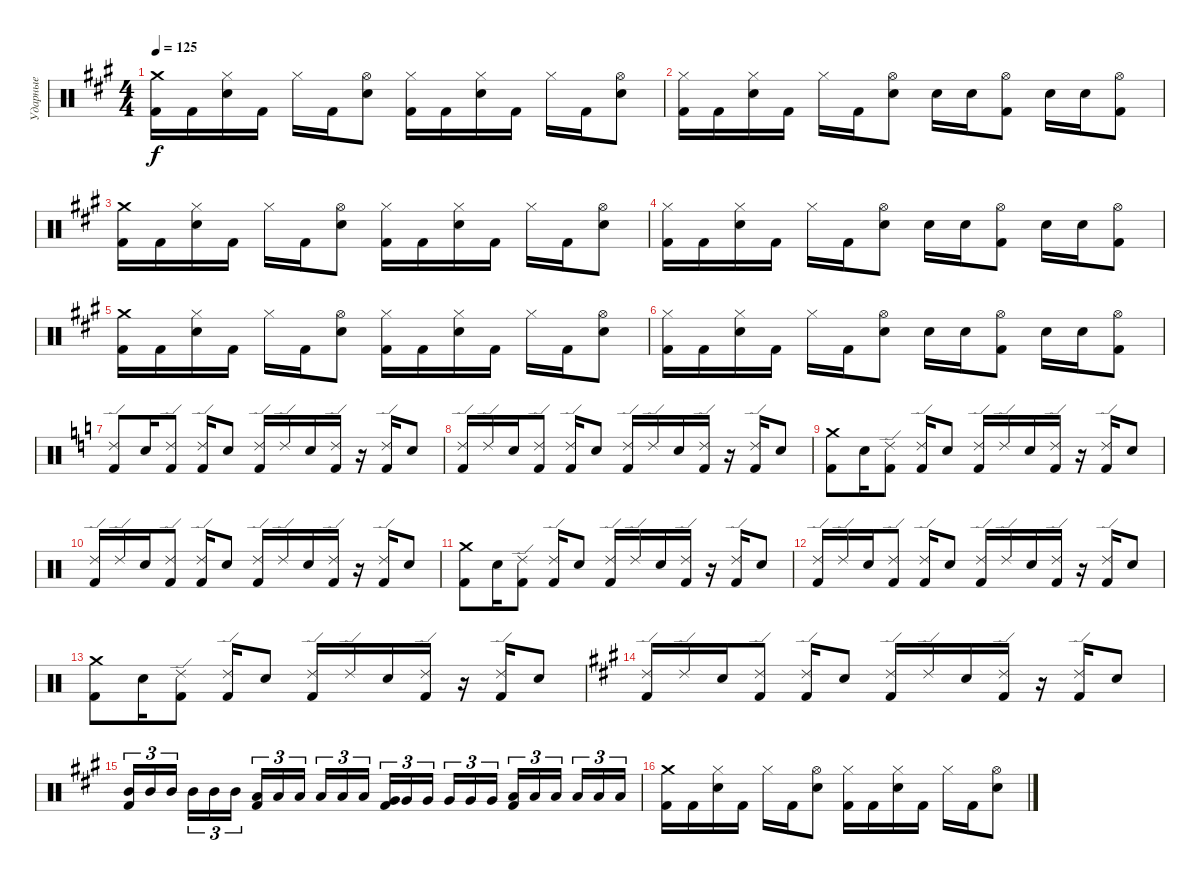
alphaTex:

\track ("Ударные" "Ударные") {instrument percussion}
\staff {score}
\articulation defaults
\ts (4 4)
\tempo 125
\clef neutral
\ks a
("Crash medium (hit)" "Kick (hit) 2").16{dy f} "Kick (hit) 2".16 ("Hi-Hat (closed)" "Snare (hit) 2").16 "Kick (hit) 2".16 "Hi-Hat (closed)".16 "Kick (hit) 2".16 ("Hi-Hat (open)" "Snare (hit) 2").8 ("Hi-Hat (closed)" "Kick (hit) 2").16 "Kick (hit) 2".16 ("Hi-Hat (closed)" "Snare (hit) 2").16 "Kick (hit) 2".16 "Hi-Hat (closed)".16 "Kick (hit) 2".16 ("Hi-Hat (open)" "Snare (hit) 2").8 |
("Hi-Hat (closed)" "Kick (hit) 2").16 "Kick (hit) 2".16 ("Hi-Hat (closed)" "Snare (hit) 2").16 "Kick (hit) 2".16 "Hi-Hat (closed)".16 "Kick (hit) 2".16 ("Hi-Hat (open)" "Snare (hit) 2").8 "Snare (hit) 2".16 "Snare (hit) 2".16 ("Hi-Hat (open)" "Kick (hit) 2").8 "Snare (hit) 2".16 "Snare (hit) 2".16 ("Hi-Hat (open)" "Kick (hit) 2").8 |
("Crash medium (hit)" "Kick (hit) 2").16 "Kick (hit) 2".16 ("Hi-Hat (closed)" "Snare (hit) 2").16 "Kick (hit) 2".16 "Hi-Hat (closed)".16 "Kick (hit) 2".16 ("Hi-Hat (open)" "Snare (hit) 2").8 ("Hi-Hat (closed)" "Kick (hit) 2").16 "Kick (hit) 2".16 ("Hi-Hat (closed)" "Snare (hit) 2").16 "Kick (hit) 2".16 "Hi-Hat (closed)".16 "Kick (hit) 2".16 ("Hi-Hat (open)" "Snare (hit) 2").8 |
("Hi-Hat (closed)" "Kick (hit) 2").16 "Kick (hit) 2".16 ("Hi-Hat (closed)" "Snare (hit) 2").16 "Kick (hit) 2".16 "Hi-Hat (closed)".16 "Kick (hit) 2".16 ("Hi-Hat (open)" "Snare (hit) 2").8 "Snare (hit) 2".16 "Snare (hit) 2".16 ("Hi-Hat (open)" "Kick (hit) 2").8 "Snare (hit) 2".16 "Snare (hit) 2".16 ("Hi-Hat (open)" "Kick (hit) 2").8 |
("Crash medium (hit)" "Kick (hit) 2").16 "Kick (hit) 2".16 ("Hi-Hat (closed)" "Snare (hit) 2").16 "Kick (hit) 2".16 "Hi-Hat (closed)".16 "Kick (hit) 2".16 ("Hi-Hat (open)" "Snare (hit) 2").8 ("Hi-Hat (closed)" "Kick (hit) 2").16 "Kick (hit) 2".16 ("Hi-Hat (closed)" "Snare (hit) 2").16 "Kick (hit) 2".16 "Hi-Hat (closed)".16 "Kick (hit) 2".16 ("Hi-Hat (open)" "Snare (hit) 2").8 |
("Hi-Hat (closed)" "Kick (hit) 2").16 "Kick (hit) 2".16 ("Hi-Hat (closed)" "Snare (hit) 2").16 "Kick (hit) 2".16 "Hi-Hat (closed)".16 "Kick (hit) 2".16 ("Hi-Hat (open)" "Snare (hit) 2").8 "Snare (hit) 2".16 "Snare (hit) 2".16 ("Hi-Hat (open)" "Kick (hit) 2").8 "Snare (hit) 2".16 "Snare (hit) 2".16 ("Hi-Hat (open)" "Kick (hit) 2").8 |
\ks c
("Ride (edge) 2" "Kick (hit) 2").8 "Snare (hit) 2".16 ("Ride (edge) 2" "Kick (hit) 2").8 ("Ride (edge) 2" "Kick (hit) 2").16 "Snare (hit) 2".8 ("Ride (edge) 2" "Kick (hit) 2").16 "Ride (edge) 2".16 "Snare (hit) 2".16 ("Ride (edge) 2" "Kick (hit) 2").16 r.16 ("Ride (edge) 2" "Kick (hit) 2").16 "Snare (hit) 2".8 |
("Ride (edge) 2" "Kick (hit) 2").16 "Ride (edge) 2".16 "Snare (hit) 2".16 ("Ride (edge) 2" "Kick (hit) 2").8 ("Ride (edge) 2" "Kick (hit) 2").16 "Snare (hit) 2".8 ("Ride (edge) 2" "Kick (hit) 2").16 "Ride (edge) 2".16 "Snare (hit) 2".16 ("Ride (edge) 2" "Kick (hit) 2").16 r.16 ("Ride (edge) 2" "Kick (hit) 2").16 "Snare (hit) 2".8 |
("Crash medium (hit)" "Kick (hit) 2").8 "Snare (hit) 2".16 ("Ride (edge) 2" "Kick (hit) 2").8 ("Ride (edge) 2" "Kick (hit) 2").16 "Snare (hit) 2".8 ("Ride (edge) 2" "Kick (hit) 2").16 "Ride (edge) 2".16 "Snare (hit) 2".16 ("Ride (edge) 2" "Kick (hit) 2").16 r.16 ("Ride (edge) 2" "Kick (hit) 2").16 "Snare (hit) 2".8 |
("Ride (edge) 2" "Kick (hit) 2").16 "Ride (edge) 2".16 "Snare (hit) 2".16 ("Ride (edge) 2" "Kick (hit) 2").8 ("Ride (edge) 2" "Kick (hit) 2").16 "Snare (hit) 2".8 ("Ride (edge) 2" "Kick (hit) 2").16 "Ride (edge) 2".16 "Snare (hit) 2".16 ("Ride (edge) 2" "Kick (hit) 2").16 r.16 ("Ride (edge) 2" "Kick (hit) 2").16 "Snare (hit) 2".8 |
("Crash medium (hit)" "Kick (hit) 2").8 "Snare (hit) 2".16 ("Ride (edge) 2" "Kick (hit) 2").8 ("Ride (edge) 2" "Kick (hit) 2").16 "Snare (hit) 2".8 ("Ride (edge) 2" "Kick (hit) 2").16 "Ride (edge) 2".16 "Snare (hit) 2".16 ("Ride (edge) 2" "Kick (hit) 2").16 r.16 ("Ride (edge) 2" "Kick (hit) 2").16 "Snare (hit) 2".8 |
("Ride (edge) 2" "Kick (hit) 2").16 "Ride (edge) 2".16 "Snare (hit) 2".16 ("Ride (edge) 2" "Kick (hit) 2").8 ("Ride (edge) 2" "Kick (hit) 2").16 "Snare (hit) 2".8 ("Ride (edge) 2" "Kick (hit) 2").16 "Ride (edge) 2".16 "Snare (hit) 2".16 ("Ride (edge) 2" "Kick (hit) 2").16 r.16 ("Ride (edge) 2" "Kick (hit) 2").16 "Snare (hit) 2".8 |
("Crash medium (hit)" "Kick (hit) 2").8 "Snare (hit) 2".16 ("Ride (edge) 2" "Kick (hit) 2").8 ("Ride (edge) 2" "Kick (hit) 2").16 "Snare (hit) 2".8 ("Ride (edge) 2" "Kick (hit) 2").16 "Ride (edge) 2".16 "Snare (hit) 2".16 ("Ride (edge) 2" "Kick (hit) 2").16 r.16 ("Ride (edge) 2" "Kick (hit) 2").16 "Snare (hit) 2".8 |
\ks a
("Ride (edge) 2" "Kick (hit) 2").16 "Ride (edge) 2".16 "Snare (hit) 2".16 ("Ride (edge) 2" "Kick (hit) 2").8 ("Ride (edge) 2" "Kick (hit) 2").16 "Snare (hit) 2".8 ("Ride (edge) 2" "Kick (hit) 2").16 "Ride (edge) 2".16 "Snare (hit) 2".16 ("Ride (edge) 2" "Kick (hit) 2").16 r.16 ("Ride (edge) 2" "Kick (hit) 2").16 "Snare (hit) 2".8 |
("Mid Tom (hit)" "Kick (hit) 2").16{tu (3 2)} "Mid Tom (hit)".16{tu (3 2)} "Mid Tom (hit)".16{tu (3 2) beam splitsecondary} "Mid Tom (hit)".16{tu (3 2)} "Mid Tom (hit)".16{tu (3 2)} "Mid Tom (hit)".16{tu (3 2)} ("Low Tom (hit)" "Kick (hit) 2").16{tu (3 2)} "Low Tom (hit)".16{tu (3 2)} "Low Tom (hit)".16{tu (3 2) beam splitsecondary} "Low Tom (hit)".16{tu (3 2)} "Low Tom (hit)".16{tu (3 2)} "Low Tom (hit)".16{tu (3 2)} ("Very Low Tom (hit)" "Kick (hit) 2").16{tu (3 2)} "Very Low Tom (hit)".16{tu (3 2)} "Very Low Tom (hit)".16{tu (3 2) beam splitsecondary} "Very Low Tom (hit)".16{tu (3 2)} "Very Low Tom (hit)".16{tu (3 2)} "Very Low Tom (hit)".16{tu (3 2)} ("Low Floor Tom (hit)" "Kick (hit) 2").16{tu (3 2)} "Low Floor Tom (hit)".16{tu (3 2)} "Low Floor Tom (hit)".16{tu (3 2) beam splitsecondary} "Low Floor Tom (hit)".16{tu (3 2)} "Low Floor Tom (hit)".16{tu (3 2)} "Low Floor Tom (hit)".16{tu (3 2)} |
("Crash medium (hit)" "Kick (hit) 2").16 "Kick (hit) 2".16 ("Hi-Hat (closed)" "Snare (hit) 2").16 "Kick (hit) 2".16 "Hi-Hat (closed)".16 "Kick (hit) 2".16 ("Hi-Hat (open)" "Snare (hit) 2").8 ("Hi-Hat (closed)" "Kick (hit) 2").16 "Kick (hit) 2".16 ("Hi-Hat (closed)" "Snare (hit) 2").16 "Kick (hit) 2".16 "Hi-Hat (closed)".16 "Kick (hit) 2".16 ("Hi-Hat (open)" "Snare (hit) 2").8
